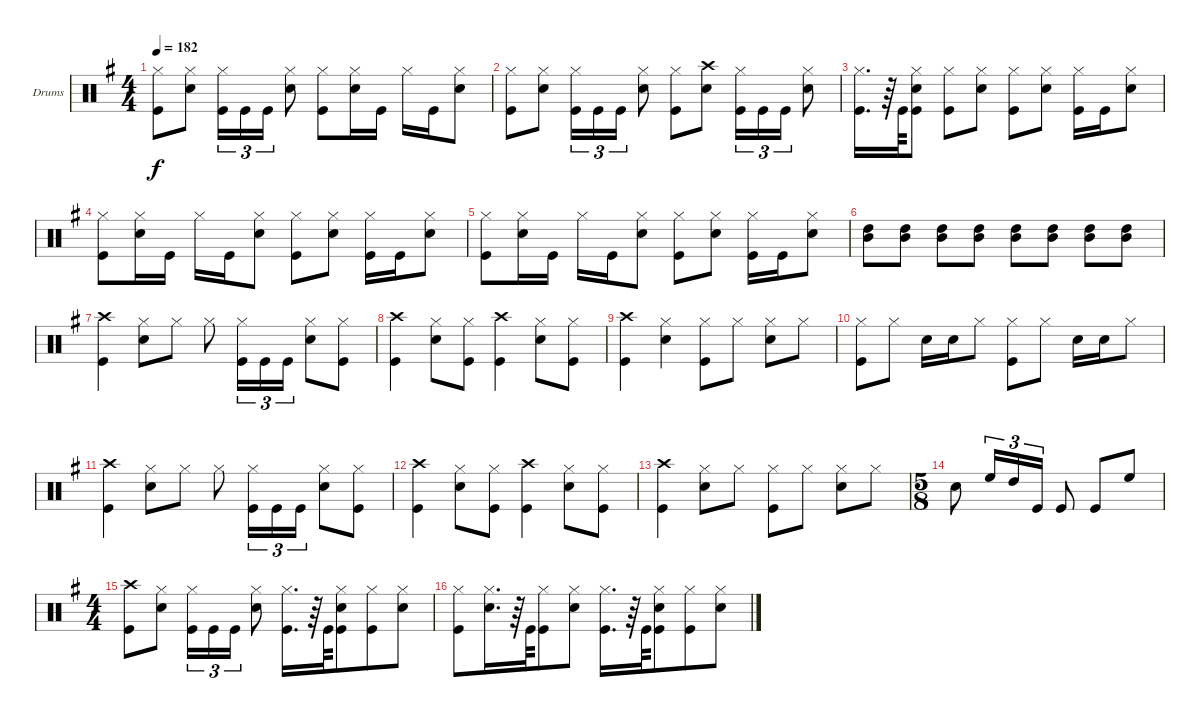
\bracketExtendMode groupsimilarinstruments
\firstSystemTrackNameOrientation horizontal
\otherSystemsTrackNameOrientation horizontal
\track ("Drumkit" "Drums") {instrument percussion}
\staff {score}
\articulation defaults
\ts (4 4)
\tempo 182
\clef neutral
\scale
1.04288
\ks g
("Kick (hit)" "Hi-Hat (closed)").8{dy f} ("Snare (hit) 2" "Hi-Hat (closed)").8 ("Kick (hit)" "Hi-Hat (closed)").16{tu (3 2)} "Kick (hit)".16{tu (3 2)} "Kick (hit)".16{tu (3 2)} ("Snare (hit) 2" "Hi-Hat (closed)").8 ("Kick (hit)" "Hi-Hat (closed)").8 ("Snare (hit) 2" "Hi-Hat (closed)").16 "Kick (hit)".16 "Hi-Hat (closed)".16 "Kick (hit)".16 ("Snare (hit) 2" "Hi-Hat (closed)").8 |
\scale
0.957125 ("Kick (hit)" "Hi-Hat (closed)").8 ("Snare (hit) 2" "Hi-Hat (closed)").8 ("Kick (hit)" "Hi-Hat (closed)").16{tu (3 2)} "Kick (hit)".16{tu (3 2)} "Kick (hit)".16{tu (3 2)} ("Snare (hit) 2" "Hi-Hat (closed)").8 ("Kick (hit)" "Hi-Hat (closed)").8 ("Crash high (hit)" "Snare (hit) 2").8 ("Kick (hit)" "Hi-Hat (closed)").16{tu (3 2)} "Kick (hit)".16{tu (3 2)} "Kick (hit)".16{tu (3 2)} ("Snare (hit) 2" "Hi-Hat (closed)").8 |
\scale
1.04288 ("Kick (hit)" "Hi-Hat (closed)").16{d} r.64 "Kick (hit)".64 ("Kick (hit)" "Snare (hit) 2" "Hi-Hat (closed)").8 ("Kick (hit)" "Hi-Hat (closed)").8 ("Snare (hit) 2" "Hi-Hat (closed)").8 ("Kick (hit)" "Hi-Hat (closed)").8 ("Snare (hit) 2" "Hi-Hat (closed)").8 ("Kick (hit)" "Hi-Hat (closed)").16 "Kick (hit)".16 ("Snare (hit) 2" "Hi-Hat (closed)").8 |
\scale
0.957125 ("Hi-Hat (closed)" "Kick (hit)").8 ("Snare (hit) 2" "Hi-Hat (closed)").16 "Kick (hit)".16 "Hi-Hat (closed)".16 "Kick (hit)".16 ("Snare (hit) 2" "Hi-Hat (closed)").8 ("Hi-Hat (closed)" "Kick (hit)").8 ("Snare (hit) 2" "Hi-Hat (closed)").8 ("Hi-Hat (closed)" "Kick (hit)").16 "Kick (hit)".16 ("Snare (hit) 2" "Hi-Hat (closed)").8 |
\scale
1.04288 ("Hi-Hat (closed)" "Kick (hit)").8 ("Snare (hit) 2" "Hi-Hat (closed)").16 "Kick (hit)".16 "Hi-Hat (closed)".16 "Kick (hit)".16 ("Snare (hit) 2" "Hi-Hat (closed)").8 ("Hi-Hat (closed)" "Kick (hit)").8 ("Snare (hit) 2" "Hi-Hat (closed)").8 ("Hi-Hat (closed)" "Kick (hit)").16 "Kick (hit)".16 ("Snare (hit) 2" "Hi-Hat (closed)").8 |
\scale
0.957125 ("High Tom (hit)" "Mid Tom (hit)").8 ("High Tom (hit)" "Mid Tom (hit)").8 ("High Tom (hit)" "Mid Tom (hit)").8 ("High Tom (hit)" "Mid Tom (hit)").8 ("High Tom (hit)" "Mid Tom (hit)").8 ("High Tom (hit)" "Mid Tom (hit)").8 ("High Tom (hit)" "Mid Tom (hit)").8 ("High Tom (hit)" "Mid Tom (hit)").8 |
\scale
1.04288 ("Kick (hit)" "Crash high (hit)").4 ("Snare (hit) 2" "Hi-Hat (closed)").8 "Hi-Hat (closed)".8 "Hi-Hat (closed)".8 ("Kick (hit)" "Hi-Hat (closed)").16{tu (3 2)} "Kick (hit)".16{tu (3 2)} "Kick (hit)".16{tu (3 2)} ("Snare (hit) 2" "Hi-Hat (closed)").8 ("Kick (hit)" "Hi-Hat (closed)").8 |
\scale
0.957125 ("Kick (hit)" "Crash high (hit)").4 ("Hi-Hat (closed)" "Snare (hit) 2").8 ("Kick (hit)" "Hi-Hat (closed)").8 ("Crash high (hit)" "Kick (hit)").4 ("Hi-Hat (closed)" "Snare (hit) 2").8 ("Kick (hit)" "Hi-Hat (closed)").8 |
\scale
1.04288 ("Kick (hit)" "Crash high (hit)").4 ("Hi-Hat (closed)" "Snare (hit) 2").4 ("Hi-Hat (closed)" "Kick (hit)").8 "Hi-Hat (closed)".8 ("Snare (hit) 2" "Hi-Hat (closed)").8 "Hi-Hat (closed)".8 |
\scale
0.957125 ("Kick (hit)" "Hi-Hat (closed)").8 "Hi-Hat (closed)".8 "Snare (hit) 2".16 "Snare (hit) 2".16 "Hi-Hat (closed)".8 ("Kick (hit)" "Hi-Hat (closed)").8 "Hi-Hat (closed)".8 "Snare (hit) 2".16 "Snare (hit) 2".16 "Hi-Hat (closed)".8 |
\scale
1.04288 ("Kick (hit)" "Crash high (hit)").4 ("Snare (hit) 2" "Hi-Hat (closed)").8 "Hi-Hat (closed)".8 "Hi-Hat (closed)".8 ("Kick (hit)" "Hi-Hat (closed)").16{tu (3 2)} "Kick (hit)".16{tu (3 2)} "Kick (hit)".16{tu (3 2)} ("Snare (hit) 2" "Hi-Hat (closed)").8 ("Kick (hit)" "Hi-Hat (closed)").8 |
\scale
0.957125 ("Kick (hit)" "Crash high (hit)").4 ("Hi-Hat (closed)" "Snare (hit) 2").8 ("Kick (hit)" "Hi-Hat (closed)").8 ("Crash high (hit)" "Kick (hit)").4 ("Hi-Hat (closed)" "Snare (hit) 2").8 ("Kick (hit)" "Hi-Hat (closed)").8 |
\scale
1.04288 ("Kick (hit)" "Crash high (hit)").4 ("Hi-Hat (closed)" "Snare (hit) 2").8 "Hi-Hat (closed)".8 ("Hi-Hat (closed)" "Kick (hit)").8 "Hi-Hat (closed)".8 ("Snare (hit) 2" "Hi-Hat (closed)").8 "Hi-Hat (closed)".8 |
\ts (5 8)
\beaming (8 3 2)
\scale
0.957125 "Snare (hit) 2".8 "High Floor Tom (hit)".16{tu (3 2)} "High Tom (hit)".16{tu (3 2)} "Kick (hit)".16{tu (3 2)} "Kick (hit)".8 "Kick (hit)".8 "High Floor Tom (hit)".8 |
\ts (4 4)
\beaming (8 4 4)
\scale
1.07314 ("Crash high (hit)" "Kick (hit)").8 ("Snare (hit) 2" "Hi-Hat (closed)").8 ("Kick (hit)" "Hi-Hat (closed)").16{tu (3 2)} "Kick (hit)".16{tu (3 2)} "Kick (hit)".16{tu (3 2)} ("Snare (hit) 2" "Hi-Hat (closed)").8 ("Kick (hit)" "Hi-Hat (closed)").16{d} r.64 "Kick (hit)".64 ("Kick (hit)" "Snare (hit) 2" "Hi-Hat (closed)").8 ("Kick (hit)" "Hi-Hat (closed)").8 ("Snare (hit) 2" "Hi-Hat (closed)").8 |
\scale
0.92686 ("Kick (hit)" "Hi-Hat (closed)").8 ("Snare (hit) 2" "Hi-Hat (closed)").16{d} r.64 "Kick (hit)".64 ("Kick (hit)" "Hi-Hat (closed)").8 ("Snare (hit) 2" "Hi-Hat (closed)").8 ("Kick (hit)" "Hi-Hat (closed)").16{d} r.64 "Kick (hit)".64 ("Kick (hit)" "Snare (hit) 2" "Hi-Hat (closed)").8 ("Kick (hit)" "Hi-Hat (closed)").8 ("Snare (hit) 2" "Hi-Hat (closed)").8
